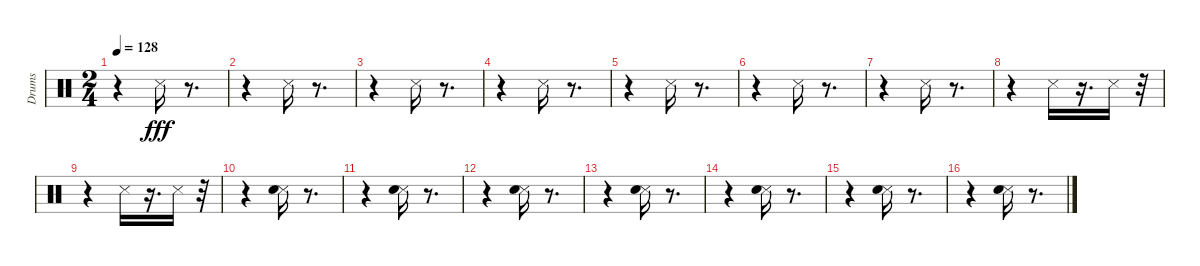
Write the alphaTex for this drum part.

\track ("Drums" "Drums") {instrument percussion}
\staff {score}
\articulation defaults
\ts (2 4)
\tempo 128
\clef neutral
\ks c
r.4{dy fff} "Snare (side stick) 3".16 r.8{d} |
r.4 "Snare (side stick) 3".16 r.8{d} |
r.4 "Snare (side stick) 3".16 r.8{d} |
r.4 "Snare (side stick) 3".16 r.8{d} |
r.4 "Snare (side stick) 3".16 r.8{d} |
r.4 "Snare (side stick) 3".16 r.8{d} |
r.4 "Snare (side stick) 3".16 r.8{d} |
r.4 "Snare (side stick) 3".16 r.16{d} "Snare (side stick) 3".16 r.32 |
r.4 "Snare (side stick) 3".16 r.16{d} "Snare (side stick) 3".16 r.32 |
r.4 ("Snare (side stick) 3" "Hand Clap (hit)").16 r.8{d} |
r.4 ("Snare (side stick) 3" "Hand Clap (hit)").16 r.8{d} |
r.4 ("Snare (side stick) 3" "Hand Clap (hit)").16 r.8{d} |
r.4 ("Snare (side stick) 3" "Hand Clap (hit)").16 r.8{d} |
r.4 ("Snare (side stick) 3" "Hand Clap (hit)").16 r.8{d} |
r.4 ("Snare (side stick) 3" "Hand Clap (hit)").16 r.8{d} |
r.4 ("Snare (side stick) 3" "Hand Clap (hit)").16 r.8{d}
